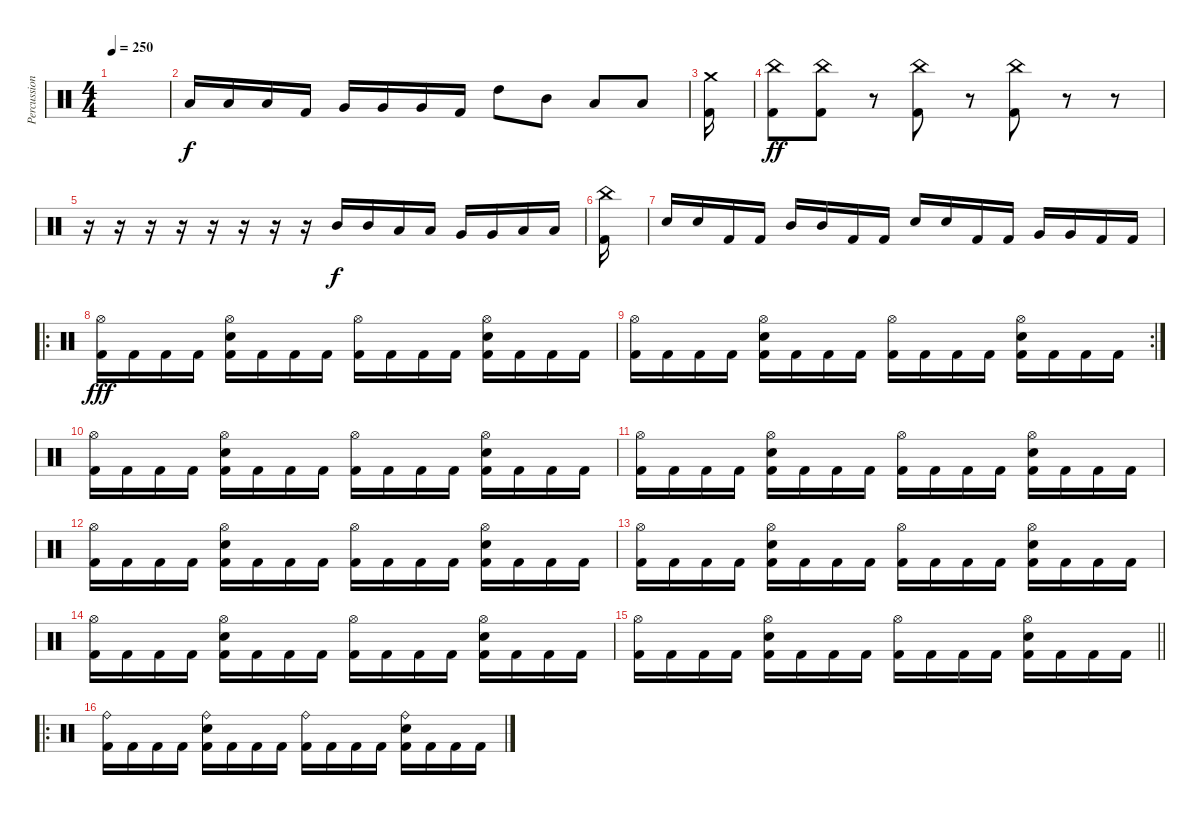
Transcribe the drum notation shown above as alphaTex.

\track ("Percussions" "Percussion") {instrument percussion}
\staff {score}
\articulation defaults
\ts (4 4)
\tempo 250
\clef neutral
\ks c
|
"Low Tom (hit)".16 "Low Tom (hit)".16 "Low Tom (hit)".16 "Kick (hit) 2".16 "Very Low Tom (hit)".16 "Very Low Tom (hit)".16 "Very Low Tom (hit)".16 "Kick (hit) 2".16 "High Tom (hit)".8 "Mid Tom (hit)".8 "Low Tom (hit)".8 "Low Floor Tom (hit)".8 |
("Crash medium (hit)" "Kick (hit) 2").16 |
("China (hit)" "Kick (hit) 2").8{dy ff} ("China (hit)" "Kick (hit) 2").8 r.8 ("China (hit)" "Kick (hit) 2").8 r.8 ("China (hit)" "Kick (hit) 2").8 r.8 r.8 |
r.16 r.16 r.16 r.16 r.16 r.16 r.16 r.16 "Mid Tom (hit)".16{dy f} "Mid Tom (hit)".16 "Low Tom (hit)".16 "Low Tom (hit)".16 "Very Low Tom (hit)".16 "Very Low Tom (hit)".16 "Low Floor Tom (hit)".16 "Low Floor Tom (hit)".16 |
("China (hit)" "Kick (hit) 2").16 |
"Electric Snare (hit)".16 "Electric Snare (hit)".16 "Kick (hit) 2".16 "Kick (hit) 2".16 "Mid Tom (hit)".16 "Mid Tom (hit)".16 "Kick (hit) 2".16 "Kick (hit) 2".16 "Electric Snare (hit)".16 "Electric Snare (hit)".16 "Kick (hit) 2".16 "Kick (hit) 2".16 "Very Low Tom (hit)".16 "Very Low Tom (hit)".16 "Kick (hit) 2".16 "Kick (hit) 2".16 |
\ro
("Hi-Hat (open)" "Kick (hit) 2").16{dy fff} "Kick (hit) 2".16 "Kick (hit) 2".16 "Kick (hit) 2".16 ("Hi-Hat (open)" "Electric Snare (hit)" "Kick (hit) 2").16 "Kick (hit) 2".16 "Kick (hit) 2".16 "Kick (hit) 2".16 ("Hi-Hat (open)" "Kick (hit) 2").16 "Kick (hit) 2".16 "Kick (hit) 2".16 "Kick (hit) 2".16 ("Hi-Hat (open)" "Electric Snare (hit)" "Kick (hit) 2").16 "Kick (hit) 2".16 "Kick (hit) 2".16 "Kick (hit) 2".16 |
\rc 2
("Hi-Hat (open)" "Kick (hit) 2").16 "Kick (hit) 2".16 "Kick (hit) 2".16 "Kick (hit) 2".16 ("Hi-Hat (open)" "Electric Snare (hit)" "Kick (hit) 2").16 "Kick (hit) 2".16 "Kick (hit) 2".16 "Kick (hit) 2".16 ("Hi-Hat (open)" "Kick (hit) 2").16 "Kick (hit) 2".16 "Kick (hit) 2".16 "Kick (hit) 2".16 ("Hi-Hat (open)" "Electric Snare (hit)" "Kick (hit) 2").16 "Kick (hit) 2".16 "Kick (hit) 2".16 "Kick (hit) 2".16 |
("Hi-Hat (open)" "Kick (hit) 2").16 "Kick (hit) 2".16 "Kick (hit) 2".16 "Kick (hit) 2".16 ("Hi-Hat (open)" "Electric Snare (hit)" "Kick (hit) 2").16 "Kick (hit) 2".16 "Kick (hit) 2".16 "Kick (hit) 2".16 ("Hi-Hat (open)" "Kick (hit) 2").16 "Kick (hit) 2".16 "Kick (hit) 2".16 "Kick (hit) 2".16 ("Hi-Hat (open)" "Electric Snare (hit)" "Kick (hit) 2").16 "Kick (hit) 2".16 "Kick (hit) 2".16 "Kick (hit) 2".16 |
("Hi-Hat (open)" "Kick (hit) 2").16 "Kick (hit) 2".16 "Kick (hit) 2".16 "Kick (hit) 2".16 ("Hi-Hat (open)" "Electric Snare (hit)" "Kick (hit) 2").16 "Kick (hit) 2".16 "Kick (hit) 2".16 "Kick (hit) 2".16 ("Hi-Hat (open)" "Kick (hit) 2").16 "Kick (hit) 2".16 "Kick (hit) 2".16 "Kick (hit) 2".16 ("Hi-Hat (open)" "Electric Snare (hit)" "Kick (hit) 2").16 "Kick (hit) 2".16 "Kick (hit) 2".16 "Kick (hit) 2".16 |
("Hi-Hat (open)" "Kick (hit) 2").16 "Kick (hit) 2".16 "Kick (hit) 2".16 "Kick (hit) 2".16 ("Hi-Hat (open)" "Electric Snare (hit)" "Kick (hit) 2").16 "Kick (hit) 2".16 "Kick (hit) 2".16 "Kick (hit) 2".16 ("Hi-Hat (open)" "Kick (hit) 2").16 "Kick (hit) 2".16 "Kick (hit) 2".16 "Kick (hit) 2".16 ("Hi-Hat (open)" "Electric Snare (hit)" "Kick (hit) 2").16 "Kick (hit) 2".16 "Kick (hit) 2".16 "Kick (hit) 2".16 |
("Hi-Hat (open)" "Kick (hit) 2").16 "Kick (hit) 2".16 "Kick (hit) 2".16 "Kick (hit) 2".16 ("Hi-Hat (open)" "Electric Snare (hit)" "Kick (hit) 2").16 "Kick (hit) 2".16 "Kick (hit) 2".16 "Kick (hit) 2".16 ("Hi-Hat (open)" "Kick (hit) 2").16 "Kick (hit) 2".16 "Kick (hit) 2".16 "Kick (hit) 2".16 ("Hi-Hat (open)" "Electric Snare (hit)" "Kick (hit) 2").16 "Kick (hit) 2".16 "Kick (hit) 2".16 "Kick (hit) 2".16 |
("Hi-Hat (open)" "Kick (hit) 2").16 "Kick (hit) 2".16 "Kick (hit) 2".16 "Kick (hit) 2".16 ("Hi-Hat (open)" "Electric Snare (hit)" "Kick (hit) 2").16 "Kick (hit) 2".16 "Kick (hit) 2".16 "Kick (hit) 2".16 ("Hi-Hat (open)" "Kick (hit) 2").16 "Kick (hit) 2".16 "Kick (hit) 2".16 "Kick (hit) 2".16 ("Hi-Hat (open)" "Electric Snare (hit)" "Kick (hit) 2").16 "Kick (hit) 2".16 "Kick (hit) 2".16 "Kick (hit) 2".16 |
\barLineRight lightlight
("Hi-Hat (open)" "Kick (hit) 2").16 "Kick (hit) 2".16 "Kick (hit) 2".16 "Kick (hit) 2".16 ("Hi-Hat (open)" "Electric Snare (hit)" "Kick (hit) 2").16 "Kick (hit) 2".16 "Kick (hit) 2".16 "Kick (hit) 2".16 ("Hi-Hat (open)" "Kick (hit) 2").16 "Kick (hit) 2".16 "Kick (hit) 2".16 "Kick (hit) 2".16 ("Hi-Hat (open)" "Electric Snare (hit)" "Kick (hit) 2").16 "Kick (hit) 2".16 "Kick (hit) 2".16 "Kick (hit) 2".16 |
\ro
("Ride (bell)" "Kick (hit) 2").16 "Kick (hit) 2".16 "Kick (hit) 2".16 "Kick (hit) 2".16 ("Ride (bell)" "Electric Snare (hit)" "Kick (hit) 2").16 "Kick (hit) 2".16 "Kick (hit) 2".16 "Kick (hit) 2".16 ("Ride (bell)" "Kick (hit) 2").16 "Kick (hit) 2".16 "Kick (hit) 2".16 "Kick (hit) 2".16 ("Ride (bell)" "Electric Snare (hit)" "Kick (hit) 2").16 "Kick (hit) 2".16 "Kick (hit) 2".16 "Kick (hit) 2".16
